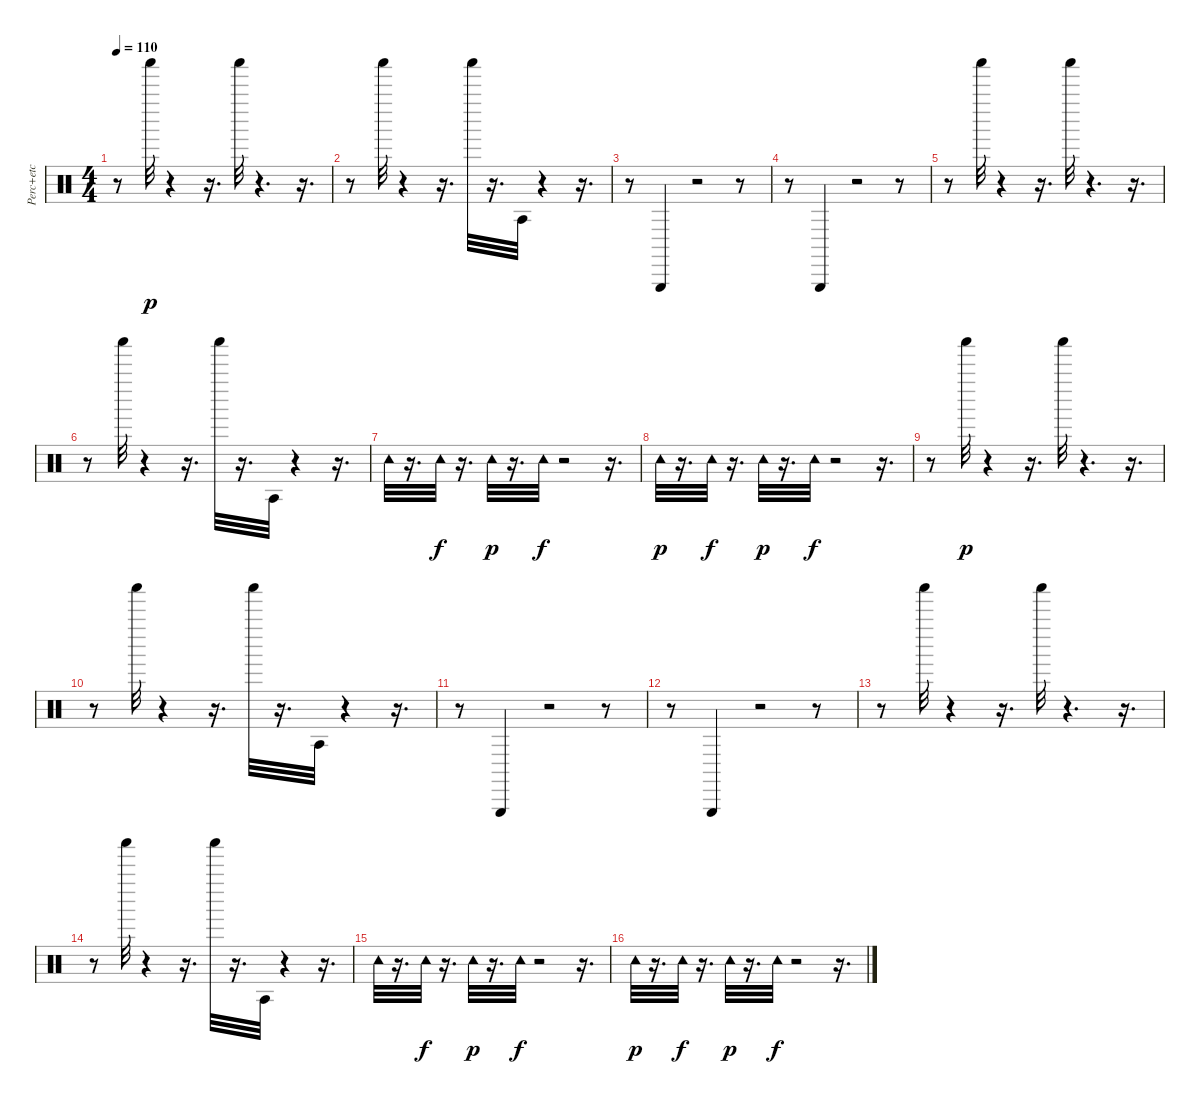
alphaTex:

\track ("Perc+etc" "Perc+etc") {instrument percussion}
\staff {score}
\articulation defaults
\ts (4 4)
\tempo 110
\clef neutral
\ks c
r.8{dy p} "Shaker (hit)".32 r.4 r.16{d} "Shaker (hit)".32 r.4{d} r.16{d} |
r.8 "Shaker (hit)".32 r.4 r.16{d} "Shaker (hit)".32 r.16{d} "Agogo tow (hit)".32 r.4 r.16{d} |
r.8 "Triangle (hit)".4 r.2 r.8 |
r.8 "Triangle (hit)".4 r.2 r.8 |
r.8 "Shaker (hit)".32 r.4 r.16{d} "Shaker (hit)".32 r.4{d} r.16{d} |
r.8 "Shaker (hit)".32 r.4 r.16{d} "Shaker (hit)".32 r.16{d} "Agogo tow (hit)".32 r.4 r.16{d} |
"Tambourine (hit)".32 r.16{d} "Tambourine (hit)".32{dy f} r.16{d} "Tambourine (hit)".32{dy p} r.16{d} "Tambourine (hit)".32{dy f} r.2 r.16{d} |
"Tambourine (hit)".32{dy p} r.16{d} "Tambourine (hit)".32{dy f} r.16{d} "Tambourine (hit)".32{dy p} r.16{d} "Tambourine (hit)".32{dy f} r.2 r.16{d} |
r.8 "Shaker (hit)".32{dy p} r.4 r.16{d} "Shaker (hit)".32 r.4{d} r.16{d} |
r.8 "Shaker (hit)".32 r.4 r.16{d} "Shaker (hit)".32 r.16{d} "Agogo tow (hit)".32 r.4 r.16{d} |
r.8 "Triangle (hit)".4 r.2 r.8 |
r.8 "Triangle (hit)".4 r.2 r.8 |
r.8 "Shaker (hit)".32 r.4 r.16{d} "Shaker (hit)".32 r.4{d} r.16{d} |
r.8 "Shaker (hit)".32 r.4 r.16{d} "Shaker (hit)".32 r.16{d} "Agogo tow (hit)".32 r.4 r.16{d} |
"Tambourine (hit)".32 r.16{d} "Tambourine (hit)".32{dy f} r.16{d} "Tambourine (hit)".32{dy p} r.16{d} "Tambourine (hit)".32{dy f} r.2 r.16{d} |
"Tambourine (hit)".32{dy p} r.16{d} "Tambourine (hit)".32{dy f} r.16{d} "Tambourine (hit)".32{dy p} r.16{d} "Tambourine (hit)".32{dy f} r.2 r.16{d}
